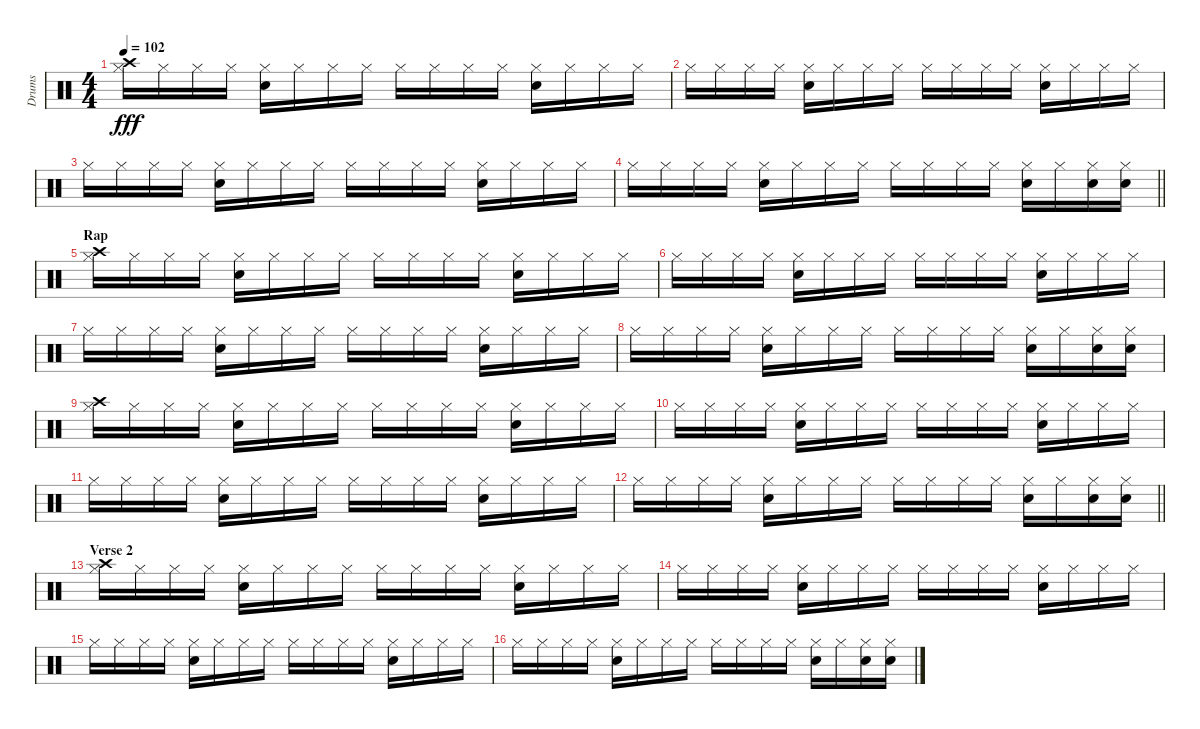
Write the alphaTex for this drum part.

\track ("Drums" "Drums") {instrument percussion}
\staff {score}
\articulation defaults
\ts (4 4)
\tempo 102
\clef neutral
\ks c
("Hi-Hat (closed)" "Crash high (hit)").16{dy fff} "Hi-Hat (closed)".16 "Hi-Hat (closed)".16 "Hi-Hat (closed)".16 ("Hi-Hat (closed)" "Hand Clap (hit)").16 "Hi-Hat (closed)".16 "Hi-Hat (closed)".16 "Hi-Hat (closed)".16 "Hi-Hat (closed)".16 "Hi-Hat (closed)".16 "Hi-Hat (closed)".16 "Hi-Hat (closed)".16 ("Hi-Hat (closed)" "Hand Clap (hit)").16 "Hi-Hat (closed)".16 "Hi-Hat (closed)".16 "Hi-Hat (closed)".16 |
"Hi-Hat (closed)".16 "Hi-Hat (closed)".16 "Hi-Hat (closed)".16 "Hi-Hat (closed)".16 ("Hi-Hat (closed)" "Hand Clap (hit)").16 "Hi-Hat (closed)".16 "Hi-Hat (closed)".16 "Hi-Hat (closed)".16 "Hi-Hat (closed)".16 "Hi-Hat (closed)".16 "Hi-Hat (closed)".16 "Hi-Hat (closed)".16 ("Hi-Hat (closed)" "Hand Clap (hit)").16 "Hi-Hat (closed)".16 "Hi-Hat (closed)".16 "Hi-Hat (closed)".16 |
"Hi-Hat (closed)".16 "Hi-Hat (closed)".16 "Hi-Hat (closed)".16 "Hi-Hat (closed)".16 ("Hi-Hat (closed)" "Hand Clap (hit)").16 "Hi-Hat (closed)".16 "Hi-Hat (closed)".16 "Hi-Hat (closed)".16 "Hi-Hat (closed)".16 "Hi-Hat (closed)".16 "Hi-Hat (closed)".16 "Hi-Hat (closed)".16 ("Hi-Hat (closed)" "Hand Clap (hit)").16 "Hi-Hat (closed)".16 "Hi-Hat (closed)".16 "Hi-Hat (closed)".16 |
\barLineRight lightlight "Hi-Hat (closed)".16 "Hi-Hat (closed)".16 "Hi-Hat (closed)".16 "Hi-Hat (closed)".16
("Hi-Hat (closed)" "Hand Clap (hit)").16 "Hi-Hat (closed)".16 "Hi-Hat (closed)".16 "Hi-Hat (closed)".16 "Hi-Hat (closed)".16 "Hi-Hat (closed)".16 "Hi-Hat (closed)".16 "Hi-Hat (closed)".16 ("Hi-Hat (closed)" "Hand Clap (hit)").16 "Hi-Hat (closed)".16 ("Hi-Hat (closed)" "Hand Clap (hit)").16 ("Hi-Hat (closed)" "Hand Clap (hit)").16 |
\section ("" "Rap")
("Hi-Hat (closed)" "Crash high (hit)").16 "Hi-Hat (closed)".16 "Hi-Hat (closed)".16 "Hi-Hat (closed)".16 ("Hi-Hat (closed)" "Hand Clap (hit)").16 "Hi-Hat (closed)".16 "Hi-Hat (closed)".16 "Hi-Hat (closed)".16 "Hi-Hat (closed)".16 "Hi-Hat (closed)".16 "Hi-Hat (closed)".16 "Hi-Hat (closed)".16 ("Hi-Hat (closed)" "Hand Clap (hit)").16 "Hi-Hat (closed)".16 "Hi-Hat (closed)".16 "Hi-Hat (closed)".16 |
"Hi-Hat (closed)".16 "Hi-Hat (closed)".16 "Hi-Hat (closed)".16 "Hi-Hat (closed)".16 ("Hi-Hat (closed)" "Hand Clap (hit)").16 "Hi-Hat (closed)".16 "Hi-Hat (closed)".16 "Hi-Hat (closed)".16 "Hi-Hat (closed)".16 "Hi-Hat (closed)".16 "Hi-Hat (closed)".16 "Hi-Hat (closed)".16 ("Hi-Hat (closed)" "Hand Clap (hit)").16 "Hi-Hat (closed)".16 "Hi-Hat (closed)".16 "Hi-Hat (closed)".16 |
"Hi-Hat (closed)".16 "Hi-Hat (closed)".16 "Hi-Hat (closed)".16 "Hi-Hat (closed)".16 ("Hi-Hat (closed)" "Hand Clap (hit)").16 "Hi-Hat (closed)".16 "Hi-Hat (closed)".16 "Hi-Hat (closed)".16 "Hi-Hat (closed)".16 "Hi-Hat (closed)".16 "Hi-Hat (closed)".16 "Hi-Hat (closed)".16 ("Hi-Hat (closed)" "Hand Clap (hit)").16 "Hi-Hat (closed)".16 "Hi-Hat (closed)".16 "Hi-Hat (closed)".16 |
"Hi-Hat (closed)".16 "Hi-Hat (closed)".16 "Hi-Hat (closed)".16 "Hi-Hat (closed)".16 ("Hi-Hat (closed)" "Hand Clap (hit)").16 "Hi-Hat (closed)".16 "Hi-Hat (closed)".16 "Hi-Hat (closed)".16 "Hi-Hat (closed)".16 "Hi-Hat (closed)".16 "Hi-Hat (closed)".16 "Hi-Hat (closed)".16 ("Hi-Hat (closed)" "Hand Clap (hit)").16 "Hi-Hat (closed)".16 ("Hi-Hat (closed)" "Hand Clap (hit)").16 ("Hi-Hat (closed)" "Hand Clap (hit)").16 |
("Hi-Hat (closed)" "Crash high (hit)").16 "Hi-Hat (closed)".16 "Hi-Hat (closed)".16 "Hi-Hat (closed)".16 ("Hi-Hat (closed)" "Hand Clap (hit)").16 "Hi-Hat (closed)".16 "Hi-Hat (closed)".16 "Hi-Hat (closed)".16 "Hi-Hat (closed)".16 "Hi-Hat (closed)".16 "Hi-Hat (closed)".16 "Hi-Hat (closed)".16 ("Hi-Hat (closed)" "Hand Clap (hit)").16 "Hi-Hat (closed)".16 "Hi-Hat (closed)".16 "Hi-Hat (closed)".16 |
"Hi-Hat (closed)".16 "Hi-Hat (closed)".16 "Hi-Hat (closed)".16 "Hi-Hat (closed)".16 ("Hi-Hat (closed)" "Hand Clap (hit)").16 "Hi-Hat (closed)".16 "Hi-Hat (closed)".16 "Hi-Hat (closed)".16 "Hi-Hat (closed)".16 "Hi-Hat (closed)".16 "Hi-Hat (closed)".16 "Hi-Hat (closed)".16 ("Hi-Hat (closed)" "Hand Clap (hit)").16 "Hi-Hat (closed)".16 "Hi-Hat (closed)".16 "Hi-Hat (closed)".16 |
"Hi-Hat (closed)".16 "Hi-Hat (closed)".16 "Hi-Hat (closed)".16 "Hi-Hat (closed)".16 ("Hi-Hat (closed)" "Hand Clap (hit)").16 "Hi-Hat (closed)".16 "Hi-Hat (closed)".16 "Hi-Hat (closed)".16 "Hi-Hat (closed)".16 "Hi-Hat (closed)".16 "Hi-Hat (closed)".16 "Hi-Hat (closed)".16 ("Hi-Hat (closed)" "Hand Clap (hit)").16 "Hi-Hat (closed)".16 "Hi-Hat (closed)".16 "Hi-Hat (closed)".16 |
\barLineRight lightlight "Hi-Hat (closed)".16 "Hi-Hat (closed)".16 "Hi-Hat (closed)".16 "Hi-Hat (closed)".16
("Hi-Hat (closed)" "Hand Clap (hit)").16 "Hi-Hat (closed)".16 "Hi-Hat (closed)".16 "Hi-Hat (closed)".16 "Hi-Hat (closed)".16 "Hi-Hat (closed)".16 "Hi-Hat (closed)".16 "Hi-Hat (closed)".16 ("Hi-Hat (closed)" "Hand Clap (hit)").16 "Hi-Hat (closed)".16 ("Hi-Hat (closed)" "Hand Clap (hit)").16 ("Hi-Hat (closed)" "Hand Clap (hit)").16 |
\section ("" "Verse 2")
("Hi-Hat (closed)" "Crash high (hit)").16 "Hi-Hat (closed)".16 "Hi-Hat (closed)".16 "Hi-Hat (closed)".16 ("Hi-Hat (closed)" "Hand Clap (hit)").16 "Hi-Hat (closed)".16 "Hi-Hat (closed)".16 "Hi-Hat (closed)".16 "Hi-Hat (closed)".16 "Hi-Hat (closed)".16 "Hi-Hat (closed)".16 "Hi-Hat (closed)".16 ("Hi-Hat (closed)" "Hand Clap (hit)").16 "Hi-Hat (closed)".16 "Hi-Hat (closed)".16 "Hi-Hat (closed)".16 |
"Hi-Hat (closed)".16 "Hi-Hat (closed)".16 "Hi-Hat (closed)".16 "Hi-Hat (closed)".16 ("Hi-Hat (closed)" "Hand Clap (hit)").16 "Hi-Hat (closed)".16 "Hi-Hat (closed)".16 "Hi-Hat (closed)".16 "Hi-Hat (closed)".16 "Hi-Hat (closed)".16 "Hi-Hat (closed)".16 "Hi-Hat (closed)".16 ("Hi-Hat (closed)" "Hand Clap (hit)").16 "Hi-Hat (closed)".16 "Hi-Hat (closed)".16 "Hi-Hat (closed)".16 |
"Hi-Hat (closed)".16 "Hi-Hat (closed)".16 "Hi-Hat (closed)".16 "Hi-Hat (closed)".16 ("Hi-Hat (closed)" "Hand Clap (hit)").16 "Hi-Hat (closed)".16 "Hi-Hat (closed)".16 "Hi-Hat (closed)".16 "Hi-Hat (closed)".16 "Hi-Hat (closed)".16 "Hi-Hat (closed)".16 "Hi-Hat (closed)".16 ("Hi-Hat (closed)" "Hand Clap (hit)").16 "Hi-Hat (closed)".16 "Hi-Hat (closed)".16 "Hi-Hat (closed)".16 |
"Hi-Hat (closed)".16 "Hi-Hat (closed)".16 "Hi-Hat (closed)".16 "Hi-Hat (closed)".16 ("Hi-Hat (closed)" "Hand Clap (hit)").16 "Hi-Hat (closed)".16 "Hi-Hat (closed)".16 "Hi-Hat (closed)".16 "Hi-Hat (closed)".16 "Hi-Hat (closed)".16 "Hi-Hat (closed)".16 "Hi-Hat (closed)".16 ("Hi-Hat (closed)" "Hand Clap (hit)").16 "Hi-Hat (closed)".16 ("Hi-Hat (closed)" "Hand Clap (hit)").16 ("Hi-Hat (closed)" "Hand Clap (hit)").16
